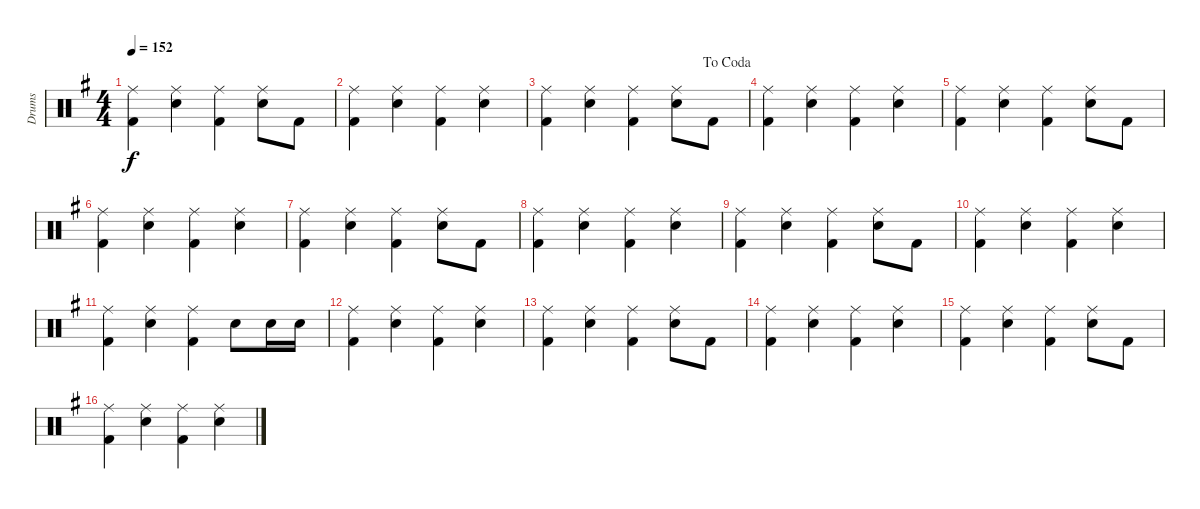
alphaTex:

\track ("Drums" "Drums") {instrument percussion}
\staff {score}
\articulation defaults
\ts (4 4)
\tempo 152
\clef neutral
\ks g
("Ride (middle)" "Kick (hit) 2").4{dy f} ("Ride (middle)" "Snare (hit) 2").4 ("Ride (middle)" "Kick (hit) 2").4 ("Ride (middle)" "Snare (hit) 2").8 "Kick (hit) 2".8 |
("Ride (middle)" "Kick (hit) 2").4 ("Ride (middle)" "Snare (hit) 2").4 ("Ride (middle)" "Kick (hit) 2").4 ("Ride (middle)" "Snare (hit) 2").4 |
\jump dacoda
("Ride (middle)" "Kick (hit) 2").4 ("Ride (middle)" "Snare (hit) 2").4 ("Ride (middle)" "Kick (hit) 2").4 ("Ride (middle)" "Snare (hit) 2").8 "Kick (hit) 2".8 |
("Ride (middle)" "Kick (hit) 2").4 ("Ride (middle)" "Snare (hit) 2").4 ("Ride (middle)" "Kick (hit) 2").4 ("Ride (middle)" "Snare (hit) 2").4 |
("Ride (middle)" "Kick (hit) 2").4 ("Ride (middle)" "Snare (hit) 2").4 ("Ride (middle)" "Kick (hit) 2").4 ("Ride (middle)" "Snare (hit) 2").8 "Kick (hit) 2".8 |
("Ride (middle)" "Kick (hit) 2").4 ("Ride (middle)" "Snare (hit) 2").4 ("Ride (middle)" "Kick (hit) 2").4 ("Ride (middle)" "Snare (hit) 2").4 |
("Ride (middle)" "Kick (hit) 2").4 ("Ride (middle)" "Snare (hit) 2").4 ("Ride (middle)" "Kick (hit) 2").4 ("Ride (middle)" "Snare (hit) 2").8 "Kick (hit) 2".8 |
("Ride (middle)" "Kick (hit) 2").4 ("Ride (middle)" "Snare (hit) 2").4 ("Ride (middle)" "Kick (hit) 2").4 ("Ride (middle)" "Snare (hit) 2").4 |
("Ride (middle)" "Kick (hit) 2").4 ("Ride (middle)" "Snare (hit) 2").4 ("Ride (middle)" "Kick (hit) 2").4 ("Ride (middle)" "Snare (hit) 2").8 "Kick (hit) 2".8 |
("Ride (middle)" "Kick (hit) 2").4 ("Ride (middle)" "Snare (hit) 2").4 ("Ride (middle)" "Kick (hit) 2").4 ("Ride (middle)" "Snare (hit) 2").4 |
("Ride (middle)" "Kick (hit) 2").4 ("Ride (middle)" "Snare (hit) 2").4 ("Ride (middle)" "Kick (hit) 2").4 "Snare (hit) 2".8 "Snare (hit) 2".16 "Snare (hit) 2".16 |
("Ride (middle)" "Kick (hit) 2").4 ("Ride (middle)" "Snare (hit) 2").4 ("Ride (middle)" "Kick (hit) 2").4 ("Ride (middle)" "Snare (hit) 2").4 |
("Ride (middle)" "Kick (hit) 2").4 ("Ride (middle)" "Snare (hit) 2").4 ("Ride (middle)" "Kick (hit) 2").4 ("Ride (middle)" "Snare (hit) 2").8 "Kick (hit) 2".8 |
("Ride (middle)" "Kick (hit) 2").4 ("Ride (middle)" "Snare (hit) 2").4 ("Ride (middle)" "Kick (hit) 2").4 ("Ride (middle)" "Snare (hit) 2").4 |
("Ride (middle)" "Kick (hit) 2").4 ("Ride (middle)" "Snare (hit) 2").4 ("Ride (middle)" "Kick (hit) 2").4 ("Ride (middle)" "Snare (hit) 2").8 "Kick (hit) 2".8 |
("Ride (middle)" "Kick (hit) 2").4 ("Ride (middle)" "Snare (hit) 2").4 ("Ride (middle)" "Kick (hit) 2").4 ("Ride (middle)" "Snare (hit) 2").4
